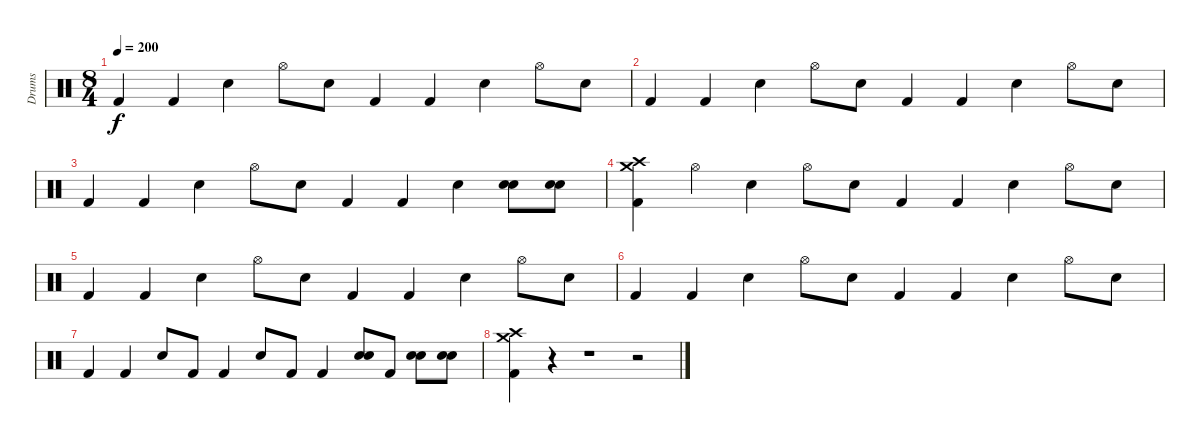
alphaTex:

\track ("Drums" "Drums") {instrument percussion}
\staff {score}
\articulation defaults
\ts (8 4)
\tempo 200
\clef neutral
\ks c "Kick (hit) 2".4{dy f} "Kick (hit) 2".4 "Electric Snare (hit)".4 "Hi-Hat (open)".8 "Electric Snare (hit)".8 "Kick (hit) 2".4 "Kick (hit) 2".4 "Electric Snare (hit)".4 "Hi-Hat (open)".8 "Electric Snare (hit)".8
|
"Kick (hit) 2".4 "Kick (hit) 2".4 "Electric Snare (hit)".4 "Hi-Hat (open)".8 "Electric Snare (hit)".8 "Kick (hit) 2".4 "Kick (hit) 2".4 "Electric Snare (hit)".4 "Hi-Hat (open)".8 "Electric Snare (hit)".8 |
"Kick (hit) 2".4 "Kick (hit) 2".4 "Electric Snare (hit)".4 "Hi-Hat (open)".8 "Electric Snare (hit)".8 "Kick (hit) 2".4 "Kick (hit) 2".4 "Electric Snare (hit)".4 ("Electric Snare (hit)" "Snare (hit) 2").8 ("Electric Snare (hit)" "Snare (hit) 2").8 |
("Crash high (hit)" "Kick (hit) 2" "Crash medium (hit)").4 "Hi-Hat (open)".4 "Electric Snare (hit)".4 "Hi-Hat (open)".8 "Electric Snare (hit)".8 "Kick (hit) 2".4 "Kick (hit) 2".4 "Electric Snare (hit)".4 "Hi-Hat (open)".8 "Electric Snare (hit)".8 |
"Kick (hit) 2".4 "Kick (hit) 2".4 "Electric Snare (hit)".4 "Hi-Hat (open)".8 "Electric Snare (hit)".8 "Kick (hit) 2".4 "Kick (hit) 2".4 "Electric Snare (hit)".4 "Hi-Hat (open)".8 "Electric Snare (hit)".8 |
"Kick (hit) 2".4 "Kick (hit) 2".4 "Electric Snare (hit)".4 "Hi-Hat (open)".8 "Electric Snare (hit)".8 "Kick (hit) 2".4 "Kick (hit) 2".4 "Electric Snare (hit)".4 "Hi-Hat (open)".8 "Electric Snare (hit)".8 |
"Kick (hit) 2".4 "Kick (hit) 2".4 "Electric Snare (hit)".8 "Kick (hit) 2".8 "Kick (hit) 2".4 "Electric Snare (hit)".8 "Kick (hit) 2".8 "Kick (hit) 2".4 ("Electric Snare (hit)" "Snare (hit) 2").8 "Kick (hit) 2".8 ("Electric Snare (hit)" "Snare (hit) 2").8 ("Electric Snare (hit)" "Snare (hit) 2").8 |
("Crash high (hit)" "Kick (hit) 2" "Crash medium (hit)").4 r.4 r.1 r.2
